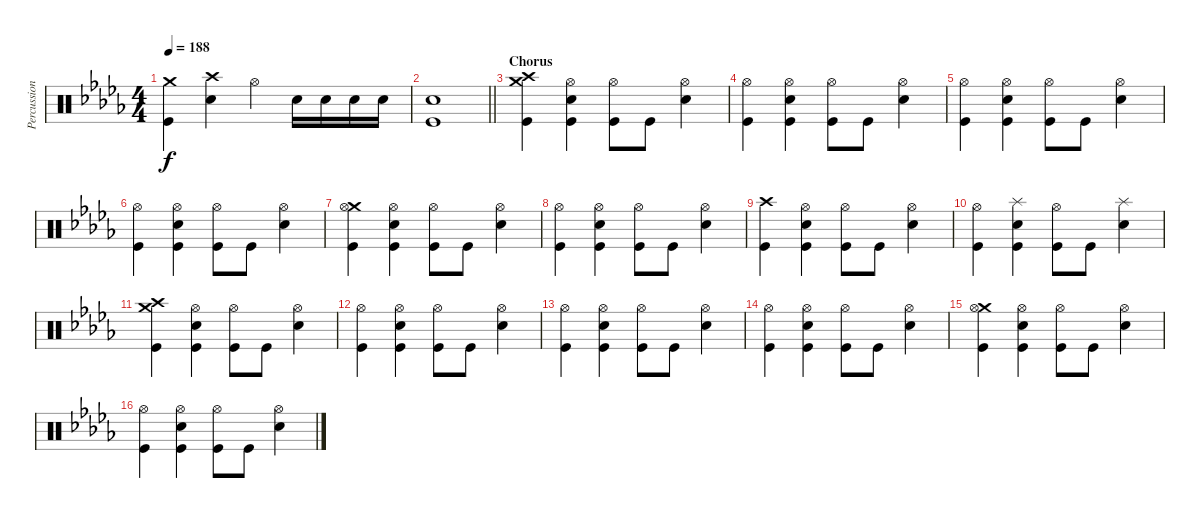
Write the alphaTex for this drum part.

\track ("Percussion" "Percussion") {instrument percussion}
\staff {score}
\articulation defaults
\ts (4 4)
\tempo 188
\clef neutral
\ks db
("Crash medium (hit)" "Kick (hit)").4{dy f} ("Crash high (hit)" "Electric Snare (hit)").4 "Hi-Hat (open)".4 "Electric Snare (hit)".16 "Electric Snare (hit)".16 "Electric Snare (hit)".16 "Electric Snare (hit)".16 |
\barLineRight lightlight
("Electric Snare (hit)" "Kick (hit)").1 |
\section ("" "Chorus")
("Crash high (hit)" "Crash medium (hit)" "Kick (hit)").4 ("Hi-Hat (open)" "Electric Snare (hit)" "Kick (hit)").4 ("Hi-Hat (open)" "Kick (hit)").8 "Kick (hit)".8 ("Hi-Hat (open)" "Electric Snare (hit)").4 |
("Hi-Hat (open)" "Kick (hit)").4 ("Hi-Hat (open)" "Electric Snare (hit)" "Kick (hit)").4 ("Hi-Hat (open)" "Kick (hit)").8 "Kick (hit)".8 ("Hi-Hat (open)" "Electric Snare (hit)").4 |
("Hi-Hat (open)" "Kick (hit)").4 ("Hi-Hat (open)" "Electric Snare (hit)" "Kick (hit)").4 ("Hi-Hat (open)" "Kick (hit)").8 "Kick (hit)".8 ("Hi-Hat (open)" "Electric Snare (hit)").4 |
("Hi-Hat (open)" "Kick (hit)").4 ("Hi-Hat (open)" "Electric Snare (hit)" "Kick (hit)").4 ("Hi-Hat (open)" "Kick (hit)").8 "Kick (hit)".8 ("Hi-Hat (open)" "Electric Snare (hit)").4 |
("Crash medium (hit)" "Hi-Hat (open)" "Kick (hit)").4 ("Hi-Hat (open)" "Electric Snare (hit)" "Kick (hit)").4 ("Hi-Hat (open)" "Kick (hit)").8 "Kick (hit)".8 ("Hi-Hat (open)" "Electric Snare (hit)").4 |
("Hi-Hat (open)" "Kick (hit)").4 ("Hi-Hat (open)" "Electric Snare (hit)" "Kick (hit)").4 ("Hi-Hat (open)" "Kick (hit)").8 "Kick (hit)".8 ("Hi-Hat (open)" "Electric Snare (hit)").4 |
("Crash high (hit)" "Kick (hit)").4 ("Hi-Hat (open)" "Electric Snare (hit)" "Kick (hit)").4 ("Hi-Hat (open)" "Kick (hit)").8 "Kick (hit)".8 ("Hi-Hat (open)" "Electric Snare (hit)").4 |
("Hi-Hat (open)" "Kick (hit)").4 ("Splash (hit)" "Electric Snare (hit)" "Kick (hit)").4 ("Hi-Hat (open)" "Kick (hit)").8 "Kick (hit)".8 ("Splash (hit)" "Electric Snare (hit)").4 |
("Crash high (hit)" "Crash medium (hit)" "Kick (hit)").4 ("Hi-Hat (open)" "Electric Snare (hit)" "Kick (hit)").4 ("Hi-Hat (open)" "Kick (hit)").8 "Kick (hit)".8 ("Hi-Hat (open)" "Electric Snare (hit)").4 |
("Hi-Hat (open)" "Kick (hit)").4 ("Hi-Hat (open)" "Electric Snare (hit)" "Kick (hit)").4 ("Hi-Hat (open)" "Kick (hit)").8 "Kick (hit)".8 ("Hi-Hat (open)" "Electric Snare (hit)").4 |
("Hi-Hat (open)" "Kick (hit)").4 ("Hi-Hat (open)" "Electric Snare (hit)" "Kick (hit)").4 ("Hi-Hat (open)" "Kick (hit)").8 "Kick (hit)".8 ("Hi-Hat (open)" "Electric Snare (hit)").4 |
("Hi-Hat (open)" "Kick (hit)").4 ("Hi-Hat (open)" "Electric Snare (hit)" "Kick (hit)").4 ("Hi-Hat (open)" "Kick (hit)").8 "Kick (hit)".8 ("Hi-Hat (open)" "Electric Snare (hit)").4 |
("Crash medium (hit)" "Hi-Hat (open)" "Kick (hit)").4 ("Hi-Hat (open)" "Electric Snare (hit)" "Kick (hit)").4 ("Hi-Hat (open)" "Kick (hit)").8 "Kick (hit)".8 ("Hi-Hat (open)" "Electric Snare (hit)").4 |
("Hi-Hat (open)" "Kick (hit)").4 ("Hi-Hat (open)" "Electric Snare (hit)" "Kick (hit)").4 ("Hi-Hat (open)" "Kick (hit)").8 "Kick (hit)".8 ("Hi-Hat (open)" "Electric Snare (hit)").4
